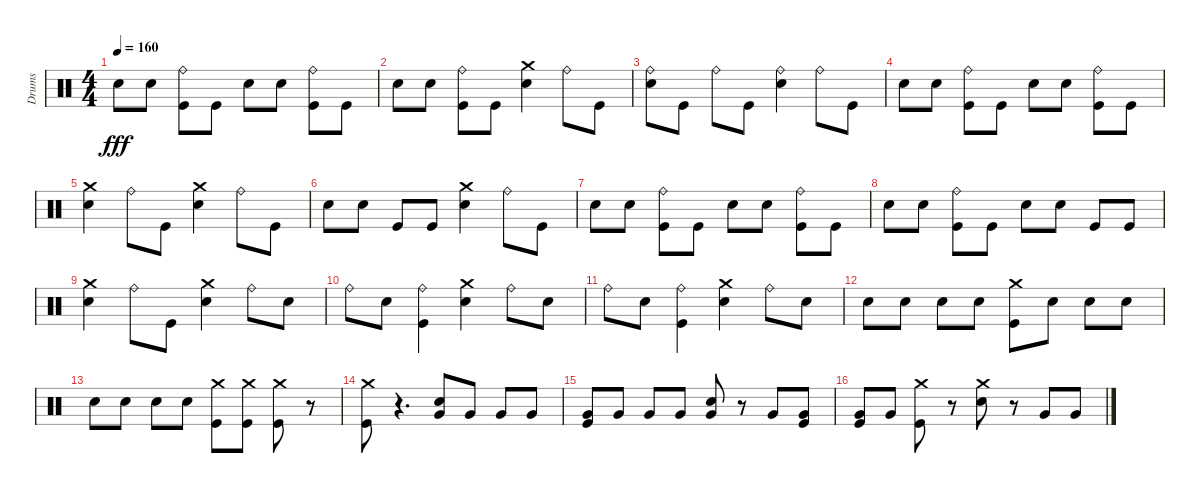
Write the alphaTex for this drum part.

\track ("Drums" "Drums") {instrument percussion}
\staff {score}
\articulation defaults
\ts (4 4)
\tempo 160
\clef neutral
\ks c "Snare (hit) 2".8{dy fff} "Snare (hit) 2".8
("Kick (hit)" "Ride (bell)").8 "Kick (hit)".8 "Snare (hit) 2".8 "Snare (hit) 2".8 ("Kick (hit)" "Ride (bell)").8 "Kick (hit)".8 |
"Snare (hit) 2".8 "Snare (hit) 2".8 ("Kick (hit)" "Ride (bell)").8 "Kick (hit)".8 ("Crash medium (hit)" "Snare (hit) 2").4 "Ride (bell)".8 "Kick (hit)".8 |
("Snare (hit) 2" "Ride (bell)").8 "Kick (hit)".8 "Ride (bell)".8 "Kick (hit)".8 ("Snare (hit) 2" "Ride (bell)").4 "Ride (bell)".8 "Kick (hit)".8 |
"Snare (hit) 2".8 "Snare (hit) 2".8 ("Kick (hit)" "Ride (bell)").8 "Kick (hit)".8 "Snare (hit) 2".8 "Snare (hit) 2".8 ("Kick (hit)" "Ride (bell)").8 "Kick (hit)".8 |
("Snare (hit) 2" "Crash medium (hit)").4 "Ride (bell)".8 "Kick (hit)".8 ("Snare (hit) 2" "Crash medium (hit)").4 "Ride (bell)".8 "Kick (hit)".8 |
"Snare (hit) 2".8 "Snare (hit) 2".8 "Kick (hit)".8 "Kick (hit)".8 ("Snare (hit) 2" "Crash medium (hit)").4 "Ride (bell)".8 "Kick (hit)".8 |
"Snare (hit) 2".8 "Snare (hit) 2".8 ("Kick (hit)" "Ride (bell)").8 "Kick (hit)".8 "Snare (hit) 2".8 "Snare (hit) 2".8 ("Kick (hit)" "Ride (bell)").8 "Kick (hit)".8 |
"Snare (hit) 2".8 "Snare (hit) 2".8 ("Kick (hit)" "Ride (bell)").8 "Kick (hit)".8 "Snare (hit) 2".8 "Snare (hit) 2".8 "Kick (hit)".8 "Kick (hit)".8 |
("Snare (hit) 2" "Crash medium (hit)").4 "Ride (bell)".8 "Kick (hit)".8 ("Snare (hit) 2" "Crash medium (hit)").4 "Ride (bell)".8 "Snare (hit) 2".8 |
"Ride (bell)".8 "Snare (hit) 2".8 ("Kick (hit)" "Ride (bell)").4 ("Snare (hit) 2" "Crash medium (hit)").4 "Ride (bell)".8 "Snare (hit) 2".8 |
"Ride (bell)".8 "Snare (hit) 2".8 ("Kick (hit)" "Ride (bell)").4 ("Crash medium (hit)" "Hand Clap (hit)").4 "Ride (bell)".8 "Snare (hit) 2".8 |
"Snare (hit) 2".8 "Snare (hit) 2".8 "Snare (hit) 2".8 "Snare (hit) 2".8 ("Crash medium (hit)" "Kick (hit)").8 "Snare (hit) 2".8 "Snare (hit) 2".8 "Snare (hit) 2".8 |
"Snare (hit) 2".8 "Snare (hit) 2".8 "Snare (hit) 2".8 "Snare (hit) 2".8 ("Crash medium (hit)" "Kick (hit)").8 ("Crash medium (hit)" "Kick (hit)").8 ("Kick (hit)" "Crash medium (hit)").8 r.8 |
("Crash medium (hit)" "Kick (hit)").8 r.4{d} ("Snare (hit) 2" "Very Low Tom (hit)").8 "Very Low Tom (hit)".8 "Very Low Tom (hit)".8 "Very Low Tom (hit)".8 |
("Very Low Tom (hit)" "Kick (hit)").8 "Very Low Tom (hit)".8 "Very Low Tom (hit)".8 "Very Low Tom (hit)".8 ("Very Low Tom (hit)" "Snare (hit) 2").8 r.8 "Very Low Tom (hit)".8 ("Kick (hit)" "Very Low Tom (hit)").8 |
("Very Low Tom (hit)" "Kick (hit)").8 "Very Low Tom (hit)".8 ("Crash medium (hit)" "Kick (hit)").8 r.8 ("Snare (hit) 2" "Crash medium (hit)").8 r.8 "Very Low Tom (hit)".8 "Very Low Tom (hit)".8
